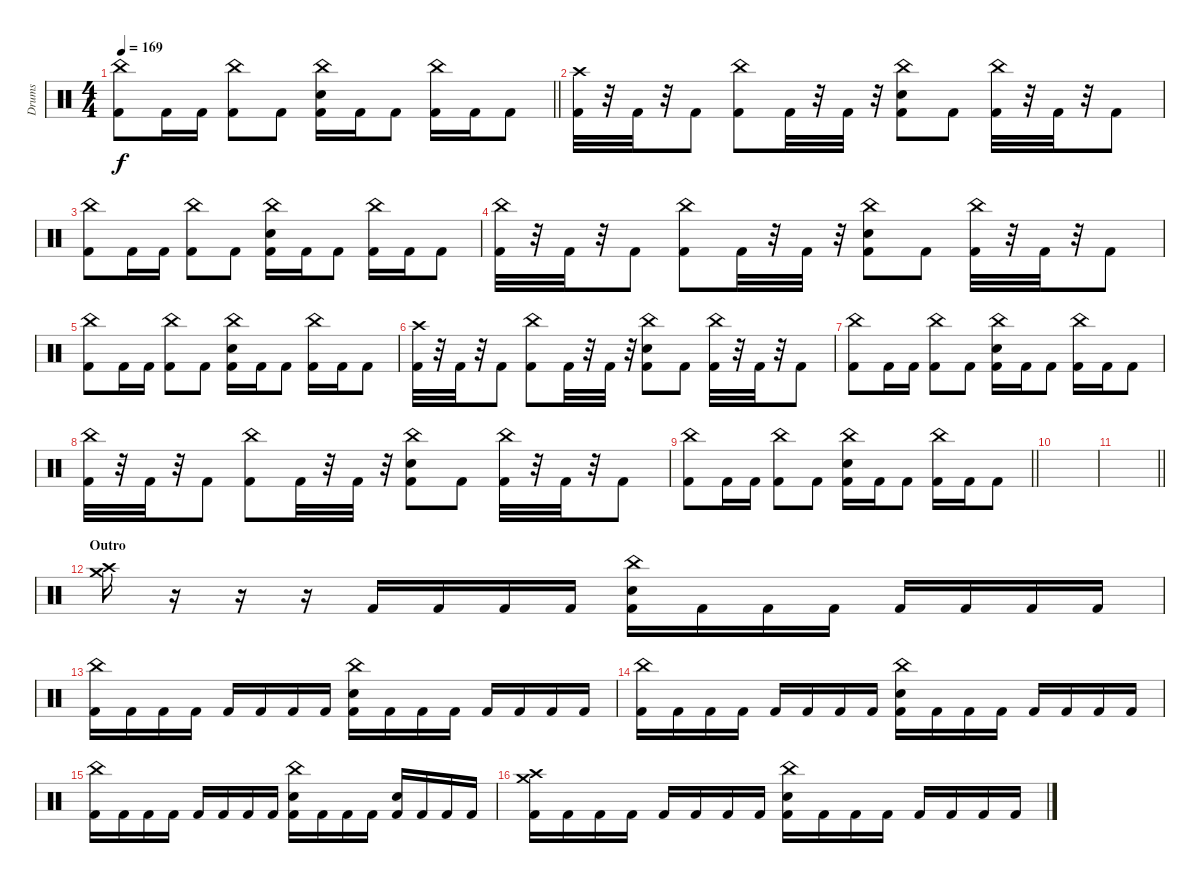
\track ("Drums" "Drums") {instrument percussion}
\staff {score}
\articulation defaults
\ts (4 4)
\tempo 169
\clef neutral
\barLineRight lightlight
\ks c
("China (hit)" "Kick (hit) 2").8{dy f} "Kick (hit) 2".16 "Kick (hit) 2".16 ("China (hit)" "Kick (hit) 2").8 "Kick (hit) 2".8 ("China (hit)" "Snare (hit) 2" "Kick (hit) 2").16 "Kick (hit) 2".16 "Kick (hit) 2".8 ("China (hit)" "Kick (hit) 2").16 "Kick (hit) 2".16 "Kick (hit) 2".8 |
("Crash high (hit)" "Kick (hit) 2").32 r.32 "Kick (hit) 2".32 r.32 "Kick (hit) 2".8 ("China (hit)" "Kick (hit) 2").8 "Kick (hit) 2".32 r.32 "Kick (hit) 2".32 r.32 ("China (hit)" "Snare (hit) 2" "Kick (hit) 2").8 "Kick (hit) 2".8 ("China (hit)" "Kick (hit) 2").32 r.32 "Kick (hit) 2".32 r.32 "Kick (hit) 2".8 |
("China (hit)" "Kick (hit) 2").8 "Kick (hit) 2".16 "Kick (hit) 2".16 ("China (hit)" "Kick (hit) 2").8 "Kick (hit) 2".8 ("China (hit)" "Snare (hit) 2" "Kick (hit) 2").16 "Kick (hit) 2".16 "Kick (hit) 2".8 ("China (hit)" "Kick (hit) 2").16 "Kick (hit) 2".16 "Kick (hit) 2".8 |
("China (hit)" "Kick (hit) 2").32 r.32 "Kick (hit) 2".32 r.32 "Kick (hit) 2".8 ("China (hit)" "Kick (hit) 2").8 "Kick (hit) 2".32 r.32 "Kick (hit) 2".32 r.32 ("China (hit)" "Snare (hit) 2" "Kick (hit) 2").8 "Kick (hit) 2".8 ("China (hit)" "Kick (hit) 2").32 r.32 "Kick (hit) 2".32 r.32 "Kick (hit) 2".8 |
("China (hit)" "Kick (hit) 2").8 "Kick (hit) 2".16 "Kick (hit) 2".16 ("China (hit)" "Kick (hit) 2").8 "Kick (hit) 2".8 ("China (hit)" "Snare (hit) 2" "Kick (hit) 2").16 "Kick (hit) 2".16 "Kick (hit) 2".8 ("China (hit)" "Kick (hit) 2").16 "Kick (hit) 2".16 "Kick (hit) 2".8 |
("Crash high (hit)" "Kick (hit) 2").32 r.32 "Kick (hit) 2".32 r.32 "Kick (hit) 2".8 ("China (hit)" "Kick (hit) 2").8 "Kick (hit) 2".32 r.32 "Kick (hit) 2".32 r.32 ("China (hit)" "Snare (hit) 2" "Kick (hit) 2").8 "Kick (hit) 2".8 ("China (hit)" "Kick (hit) 2").32 r.32 "Kick (hit) 2".32 r.32 "Kick (hit) 2".8 |
("China (hit)" "Kick (hit) 2").8 "Kick (hit) 2".16 "Kick (hit) 2".16 ("China (hit)" "Kick (hit) 2").8 "Kick (hit) 2".8 ("China (hit)" "Snare (hit) 2" "Kick (hit) 2").16 "Kick (hit) 2".16 "Kick (hit) 2".8 ("China (hit)" "Kick (hit) 2").16 "Kick (hit) 2".16 "Kick (hit) 2".8 |
("China (hit)" "Kick (hit) 2").32 r.32 "Kick (hit) 2".32 r.32 "Kick (hit) 2".8 ("China (hit)" "Kick (hit) 2").8 "Kick (hit) 2".32 r.32 "Kick (hit) 2".32 r.32 ("China (hit)" "Snare (hit) 2" "Kick (hit) 2").8 "Kick (hit) 2".8 ("China (hit)" "Kick (hit) 2").32 r.32 "Kick (hit) 2".32 r.32 "Kick (hit) 2".8 |
\barLineRight lightlight
("China (hit)" "Kick (hit) 2").8 "Kick (hit) 2".16 "Kick (hit) 2".16 ("China (hit)" "Kick (hit) 2").8 "Kick (hit) 2".8 ("China (hit)" "Snare (hit) 2" "Kick (hit) 2").16 "Kick (hit) 2".16 "Kick (hit) 2".8 ("China (hit)" "Kick (hit) 2").16 "Kick (hit) 2".16 "Kick (hit) 2".8 |
|
\barLineRight lightlight
|
\section ("" "Outro")
("Crash high (hit)" "Crash medium (hit)").16 r.16 r.16 r.16 "Kick (hit) 2".16 "Kick (hit) 2".16 "Kick (hit) 2".16 "Kick (hit) 2".16 ("China (hit)" "Snare (hit) 2" "Kick (hit) 2").16 "Kick (hit) 2".16 "Kick (hit) 2".16 "Kick (hit) 2".16 "Kick (hit) 2".16 "Kick (hit) 2".16 "Kick (hit) 2".16 "Kick (hit) 2".16 |
("China (hit)" "Kick (hit) 2").16 "Kick (hit) 2".16 "Kick (hit) 2".16 "Kick (hit) 2".16 "Kick (hit) 2".16 "Kick (hit) 2".16 "Kick (hit) 2".16 "Kick (hit) 2".16 ("China (hit)" "Snare (hit) 2" "Kick (hit) 2").16 "Kick (hit) 2".16 "Kick (hit) 2".16 "Kick (hit) 2".16 "Kick (hit) 2".16 "Kick (hit) 2".16 "Kick (hit) 2".16 "Kick (hit) 2".16 |
("China (hit)" "Kick (hit) 2").16 "Kick (hit) 2".16 "Kick (hit) 2".16 "Kick (hit) 2".16 "Kick (hit) 2".16 "Kick (hit) 2".16 "Kick (hit) 2".16 "Kick (hit) 2".16 ("China (hit)" "Snare (hit) 2" "Kick (hit) 2").16 "Kick (hit) 2".16 "Kick (hit) 2".16 "Kick (hit) 2".16 "Kick (hit) 2".16 "Kick (hit) 2".16 "Kick (hit) 2".16 "Kick (hit) 2".16 |
("China (hit)" "Kick (hit) 2").16 "Kick (hit) 2".16 "Kick (hit) 2".16 "Kick (hit) 2".16 "Kick (hit) 2".16 "Kick (hit) 2".16 "Kick (hit) 2".16 "Kick (hit) 2".16 ("China (hit)" "Snare (hit) 2" "Kick (hit) 2").16 "Kick (hit) 2".16 "Kick (hit) 2".16 "Kick (hit) 2".16 ("Snare (hit) 2" "Kick (hit) 2").16 "Kick (hit) 2".16 "Kick (hit) 2".16 "Kick (hit) 2".16 |
("Crash medium (hit)" "Crash high (hit)" "Kick (hit) 2").16 "Kick (hit) 2".16 "Kick (hit) 2".16 "Kick (hit) 2".16 "Kick (hit) 2".16 "Kick (hit) 2".16 "Kick (hit) 2".16 "Kick (hit) 2".16 ("China (hit)" "Snare (hit) 2" "Kick (hit) 2").16 "Kick (hit) 2".16 "Kick (hit) 2".16 "Kick (hit) 2".16 "Kick (hit) 2".16 "Kick (hit) 2".16 "Kick (hit) 2".16 "Kick (hit) 2".16
